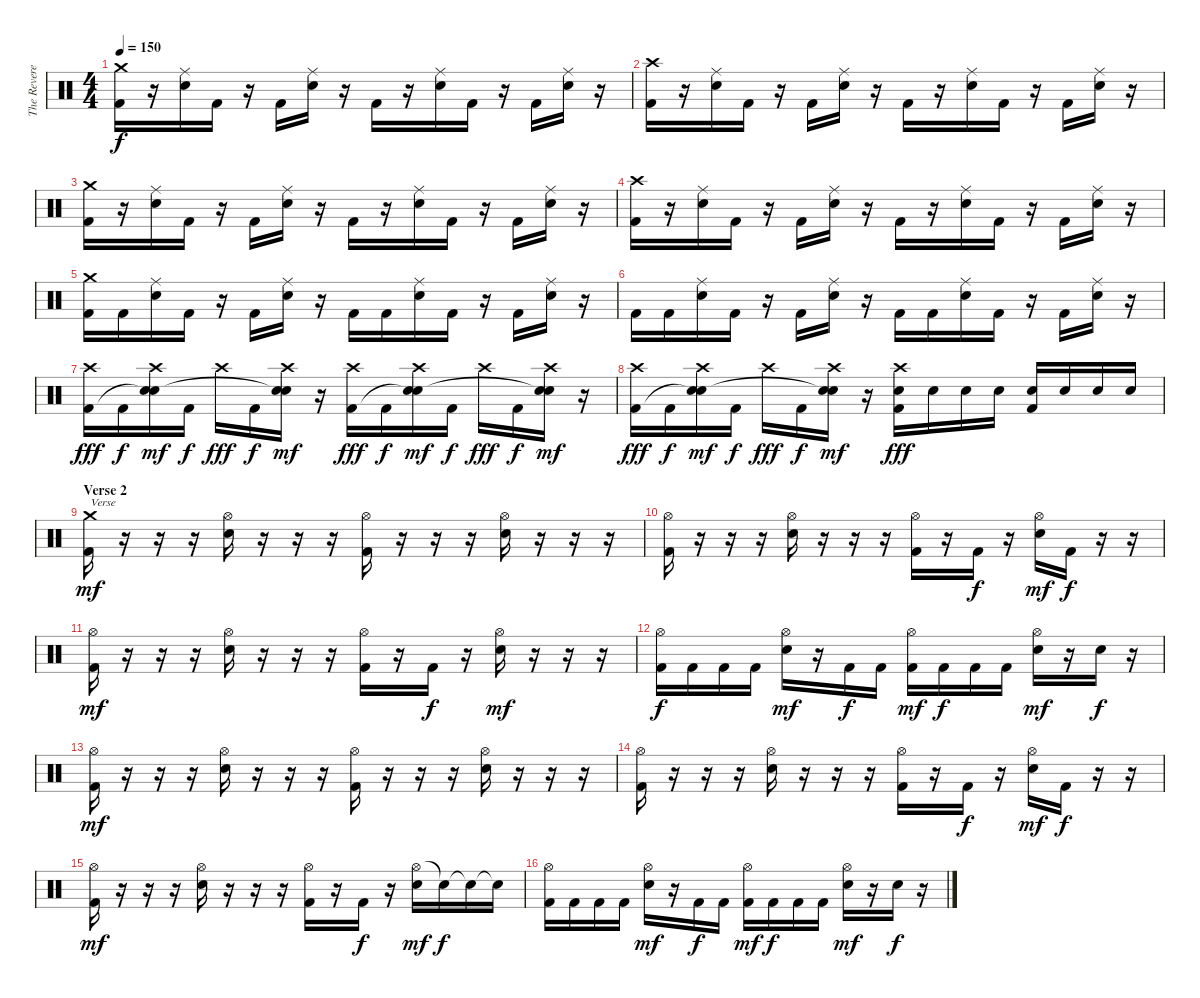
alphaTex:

\track ("The Reverend" "The Revere") {instrument percussion}
\staff {score}
\articulation defaults
\ts (4 4)
\tempo 150
\clef neutral
\ks c
("Crash medium (hit)" "Kick (hit) 2").16{dy f} r.16 ("Ride (middle)" "Electric Snare (hit)").16 "Kick (hit) 2".16 r.16 "Kick (hit) 2".16 ("Ride (middle)" "Electric Snare (hit)").16 r.16 "Kick (hit) 2".16 r.16 ("Ride (middle)" "Electric Snare (hit)").16 "Kick (hit) 2".16 r.16 "Kick (hit) 2".16 ("Ride (middle)" "Electric Snare (hit)").16 r.16 |
("Crash high (hit)" "Kick (hit) 2").16 r.16 ("Ride (middle)" "Electric Snare (hit)").16 "Kick (hit) 2".16 r.16 "Kick (hit) 2".16 ("Ride (middle)" "Electric Snare (hit)").16 r.16 "Kick (hit) 2".16 r.16 ("Ride (middle)" "Electric Snare (hit)").16 "Kick (hit) 2".16 r.16 "Kick (hit) 2".16 ("Ride (middle)" "Electric Snare (hit)").16 r.16 |
("Crash medium (hit)" "Kick (hit) 2").16 r.16 ("Ride (middle)" "Electric Snare (hit)").16 "Kick (hit) 2".16 r.16 "Kick (hit) 2".16 ("Ride (middle)" "Electric Snare (hit)").16 r.16 "Kick (hit) 2".16 r.16 ("Ride (middle)" "Electric Snare (hit)").16 "Kick (hit) 2".16 r.16 "Kick (hit) 2".16 ("Ride (middle)" "Electric Snare (hit)").16 r.16 |
("Crash high (hit)" "Kick (hit) 2").16 r.16 ("Ride (middle)" "Electric Snare (hit)").16 "Kick (hit) 2".16 r.16 "Kick (hit) 2".16 ("Ride (middle)" "Electric Snare (hit)").16 r.16 "Kick (hit) 2".16 r.16 ("Ride (middle)" "Electric Snare (hit)").16 "Kick (hit) 2".16 r.16 "Kick (hit) 2".16 ("Ride (middle)" "Electric Snare (hit)").16 r.16 |
("Crash medium (hit)" "Kick (hit) 2").16 "Kick (hit) 2".16 ("Ride (middle)" "Electric Snare (hit)").16 "Kick (hit) 2".16 r.16 "Kick (hit) 2".16 ("Ride (middle)" "Electric Snare (hit)").16 r.16 "Kick (hit) 2".16 "Kick (hit) 2".16 ("Ride (middle)" "Electric Snare (hit)").16 "Kick (hit) 2".16 r.16 "Kick (hit) 2".16 ("Ride (middle)" "Electric Snare (hit)").16 r.16 |
"Kick (hit) 2".16 "Kick (hit) 2".16 ("Ride (middle)" "Electric Snare (hit)").16 "Kick (hit) 2".16 r.16 "Kick (hit) 2".16 ("Ride (middle)" "Electric Snare (hit)").16 r.16 "Kick (hit) 2".16 "Kick (hit) 2".16 ("Ride (middle)" "Electric Snare (hit)").16 "Kick (hit) 2".16 r.16 "Kick (hit) 2".16 ("Ride (middle)" "Electric Snare (hit)").16 r.16 |
("Crash high (hit)" "Kick (hit) 2").16{dy fff} "Kick (hit) 2".16{dy f} ("Crash high (hit)" "Snare (hit)"{t} "Electric Snare (hit)").16{dy mf} "Kick (hit) 2".16{dy f} "Crash high (hit)".16{dy fff} "Kick (hit) 2".16{dy f} ("Crash high (hit)" "Snare (hit)"{t} "Electric Snare (hit)").16{dy mf} r.16 ("Crash high (hit)" "Kick (hit) 2").16{dy fff} "Kick (hit) 2".16{dy f} ("Crash high (hit)" "Snare (hit)"{t} "Electric Snare (hit)").16{dy mf} "Kick (hit) 2".16{dy f} "Crash high (hit)".16{dy fff} "Kick (hit) 2".16{dy f} ("Crash high (hit)" "Snare (hit)"{t} "Electric Snare (hit)").16{dy mf} r.16 |
("Crash high (hit)" "Kick (hit) 2").16{dy fff} "Kick (hit) 2".16{dy f} ("Crash high (hit)" "Snare (hit)"{t} "Electric Snare (hit)").16{dy mf} "Kick (hit) 2".16{dy f} "Crash high (hit)".16{dy fff} "Kick (hit) 2".16{dy f} ("Crash high (hit)" "Snare (hit)"{t} "Electric Snare (hit)").16{dy mf} r.16 ("Crash high (hit)" "Electric Snare (hit)" "Kick (hit) 2").16{dy fff} "Electric Snare (hit)".16 "Electric Snare (hit)".16 "Electric Snare (hit)".16 ("Electric Snare (hit)" "Kick (hit) 2").16 "Electric Snare (hit)".16 "Electric Snare (hit)".16 "Electric Snare (hit)".16 |
\section ("" "Verse 2")
("Crash medium (hit)" "Kick (hit) 2").16{txt "Verse" dy mf} r.16 r.16 r.16 ("Hi-Hat (open)" "Electric Snare (hit)").16 r.16 r.16 r.16 ("Hi-Hat (open)" "Kick (hit) 2").16 r.16 r.16 r.16 ("Hi-Hat (open)" "Electric Snare (hit)").16 r.16 r.16 r.16 |
("Hi-Hat (open)" "Kick (hit) 2").16 r.16 r.16 r.16 ("Hi-Hat (open)" "Electric Snare (hit)").16 r.16 r.16 r.16 ("Hi-Hat (open)" "Kick (hit) 2").16 r.16 "Kick (hit) 2".16{dy f} r.16 ("Hi-Hat (open)" "Electric Snare (hit)").16{dy mf} "Kick (hit) 2".16{dy f} r.16 r.16 |
("Hi-Hat (open)" "Kick (hit) 2").16{dy mf} r.16 r.16 r.16 ("Hi-Hat (open)" "Electric Snare (hit)").16 r.16 r.16 r.16 ("Hi-Hat (open)" "Kick (hit) 2").16 r.16 "Kick (hit) 2".16{dy f} r.16 ("Hi-Hat (open)" "Electric Snare (hit)").16{dy mf} r.16 r.16 r.16 |
("Hi-Hat (open)" "Kick (hit) 2").16{dy f} "Kick (hit) 2".16 "Kick (hit) 2".16 "Kick (hit) 2".16 ("Hi-Hat (open)" "Electric Snare (hit)").16{dy mf} r.16 "Kick (hit) 2".16{dy f} "Kick (hit) 2".16 ("Hi-Hat (open)" "Kick (hit) 2").16{dy mf} "Kick (hit) 2".16{dy f} "Kick (hit) 2".16 "Kick (hit) 2".16 ("Hi-Hat (open)" "Electric Snare (hit)").16{dy mf} r.16 "Electric Snare (hit)".16{dy f} r.16 |
("Hi-Hat (open)" "Kick (hit) 2").16{dy mf} r.16 r.16 r.16 ("Hi-Hat (open)" "Electric Snare (hit)").16 r.16 r.16 r.16 ("Hi-Hat (open)" "Kick (hit) 2").16 r.16 r.16 r.16 ("Hi-Hat (open)" "Electric Snare (hit)").16 r.16 r.16 r.16 |
("Hi-Hat (open)" "Kick (hit) 2").16 r.16 r.16 r.16 ("Hi-Hat (open)" "Electric Snare (hit)").16 r.16 r.16 r.16 ("Hi-Hat (open)" "Kick (hit) 2").16 r.16 "Kick (hit) 2".16{dy f} r.16 ("Hi-Hat (open)" "Electric Snare (hit)").16{dy mf} "Kick (hit) 2".16{dy f} r.16 r.16 |
("Hi-Hat (open)" "Kick (hit) 2").16{dy mf} r.16 r.16 r.16 ("Hi-Hat (open)" "Electric Snare (hit)").16 r.16 r.16 r.16 ("Hi-Hat (open)" "Kick (hit) 2").16 r.16 "Kick (hit) 2".16{dy f} r.16 ("Hi-Hat (open)" "Electric Snare (hit)").16{dy mf} "Snare (hit)"{t}.16{dy f} "Snare (hit)"{t}.16 "Snare (hit)"{t}.16 |
("Hi-Hat (open)" "Kick (hit) 2").16 "Kick (hit) 2".16 "Kick (hit) 2".16 "Kick (hit) 2".16 ("Hi-Hat (open)" "Electric Snare (hit)").16{dy mf} r.16 "Kick (hit) 2".16{dy f} "Kick (hit) 2".16 ("Hi-Hat (open)" "Kick (hit) 2").16{dy mf} "Kick (hit) 2".16{dy f} "Kick (hit) 2".16 "Kick (hit) 2".16 ("Hi-Hat (open)" "Electric Snare (hit)").16{dy mf} r.16 "Electric Snare (hit)".16{dy f} r.16
